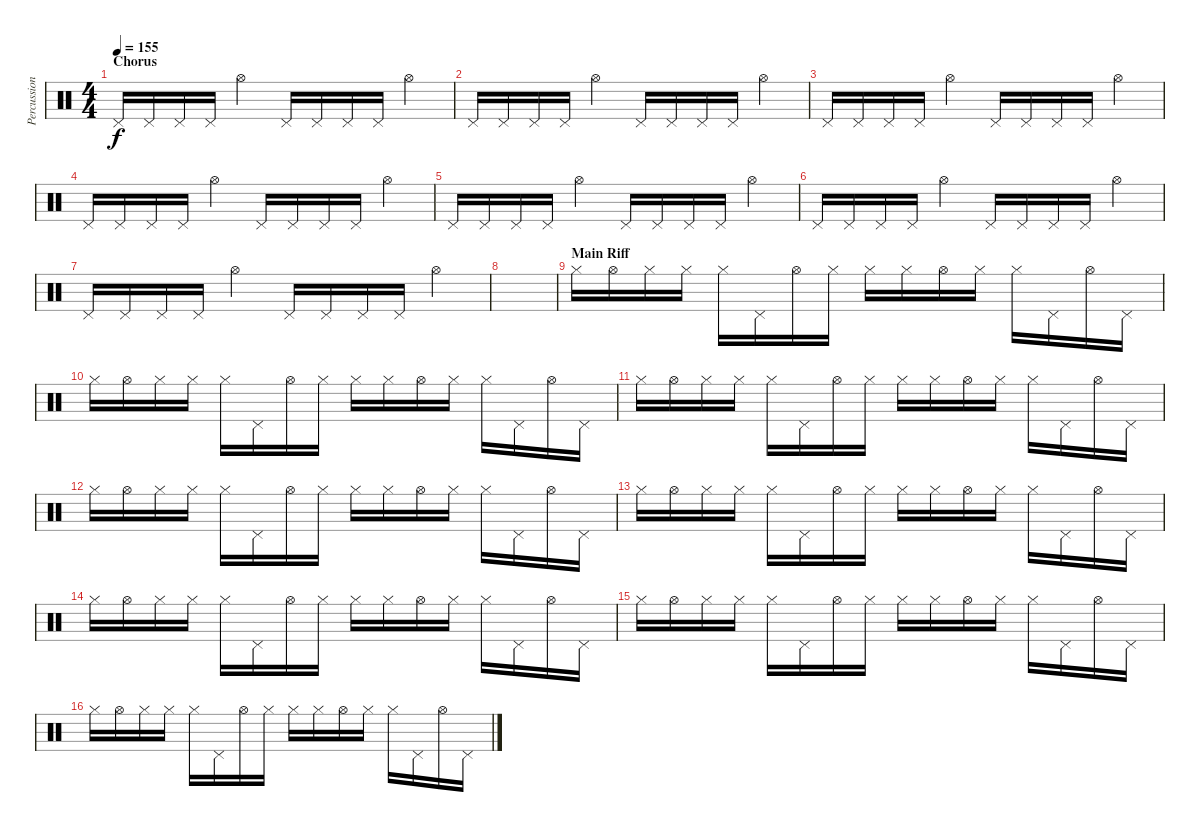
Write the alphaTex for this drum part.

\track ("Percussion" "Percussion") {instrument percussion}
\staff {score}
\articulation defaults
\ts (4 4)
\section ("" "Chorus")
\tempo 155
\clef neutral
\ks c "Pedal Hi-Hat (hit)".16{dy f} "Pedal Hi-Hat (hit)".16 "Pedal Hi-Hat (hit)".16 "Pedal Hi-Hat (hit)".16 "Hi-Hat (open)".4 "Pedal Hi-Hat (hit)".16 "Pedal Hi-Hat (hit)".16 "Pedal Hi-Hat (hit)".16 "Pedal Hi-Hat (hit)".16 "Hi-Hat (open)".4
|
"Pedal Hi-Hat (hit)".16 "Pedal Hi-Hat (hit)".16 "Pedal Hi-Hat (hit)".16 "Pedal Hi-Hat (hit)".16 "Hi-Hat (open)".4 "Pedal Hi-Hat (hit)".16 "Pedal Hi-Hat (hit)".16 "Pedal Hi-Hat (hit)".16 "Pedal Hi-Hat (hit)".16 "Hi-Hat (open)".4 |
"Pedal Hi-Hat (hit)".16 "Pedal Hi-Hat (hit)".16 "Pedal Hi-Hat (hit)".16 "Pedal Hi-Hat (hit)".16 "Hi-Hat (open)".4 "Pedal Hi-Hat (hit)".16 "Pedal Hi-Hat (hit)".16 "Pedal Hi-Hat (hit)".16 "Pedal Hi-Hat (hit)".16 "Hi-Hat (open)".4 |
"Pedal Hi-Hat (hit)".16 "Pedal Hi-Hat (hit)".16 "Pedal Hi-Hat (hit)".16 "Pedal Hi-Hat (hit)".16 "Hi-Hat (open)".4 "Pedal Hi-Hat (hit)".16 "Pedal Hi-Hat (hit)".16 "Pedal Hi-Hat (hit)".16 "Pedal Hi-Hat (hit)".16 "Hi-Hat (open)".4 |
"Pedal Hi-Hat (hit)".16 "Pedal Hi-Hat (hit)".16 "Pedal Hi-Hat (hit)".16 "Pedal Hi-Hat (hit)".16 "Hi-Hat (open)".4 "Pedal Hi-Hat (hit)".16 "Pedal Hi-Hat (hit)".16 "Pedal Hi-Hat (hit)".16 "Pedal Hi-Hat (hit)".16 "Hi-Hat (open)".4 |
"Pedal Hi-Hat (hit)".16 "Pedal Hi-Hat (hit)".16 "Pedal Hi-Hat (hit)".16 "Pedal Hi-Hat (hit)".16 "Hi-Hat (open)".4 "Pedal Hi-Hat (hit)".16 "Pedal Hi-Hat (hit)".16 "Pedal Hi-Hat (hit)".16 "Pedal Hi-Hat (hit)".16 "Hi-Hat (open)".4 |
"Pedal Hi-Hat (hit)".16 "Pedal Hi-Hat (hit)".16 "Pedal Hi-Hat (hit)".16 "Pedal Hi-Hat (hit)".16 "Hi-Hat (open)".4 "Pedal Hi-Hat (hit)".16 "Pedal Hi-Hat (hit)".16 "Pedal Hi-Hat (hit)".16 "Pedal Hi-Hat (hit)".16 "Hi-Hat (open)".4 |
|
\section ("" "Main Riff")
"Hi-Hat (closed)".16 "Hi-Hat (open)".16 "Hi-Hat (closed)".16 "Hi-Hat (closed)".16 "Hi-Hat (closed)".16 "Pedal Hi-Hat (hit)".16 "Hi-Hat (open)".16 "Hi-Hat (closed)".16 "Hi-Hat (closed)".16 "Hi-Hat (closed)".16 "Hi-Hat (open)".16 "Hi-Hat (closed)".16 "Hi-Hat (closed)".16 "Pedal Hi-Hat (hit)".16 "Hi-Hat (open)".16 "Pedal Hi-Hat (hit)".16 |
"Hi-Hat (closed)".16 "Hi-Hat (open)".16 "Hi-Hat (closed)".16 "Hi-Hat (closed)".16 "Hi-Hat (closed)".16 "Pedal Hi-Hat (hit)".16 "Hi-Hat (open)".16 "Hi-Hat (closed)".16 "Hi-Hat (closed)".16 "Hi-Hat (closed)".16 "Hi-Hat (open)".16 "Hi-Hat (closed)".16 "Hi-Hat (closed)".16 "Pedal Hi-Hat (hit)".16 "Hi-Hat (open)".16 "Pedal Hi-Hat (hit)".16 |
"Hi-Hat (closed)".16 "Hi-Hat (open)".16 "Hi-Hat (closed)".16 "Hi-Hat (closed)".16 "Hi-Hat (closed)".16 "Pedal Hi-Hat (hit)".16 "Hi-Hat (open)".16 "Hi-Hat (closed)".16 "Hi-Hat (closed)".16 "Hi-Hat (closed)".16 "Hi-Hat (open)".16 "Hi-Hat (closed)".16 "Hi-Hat (closed)".16 "Pedal Hi-Hat (hit)".16 "Hi-Hat (open)".16 "Pedal Hi-Hat (hit)".16 |
"Hi-Hat (closed)".16 "Hi-Hat (open)".16 "Hi-Hat (closed)".16 "Hi-Hat (closed)".16 "Hi-Hat (closed)".16 "Pedal Hi-Hat (hit)".16 "Hi-Hat (open)".16 "Hi-Hat (closed)".16 "Hi-Hat (closed)".16 "Hi-Hat (closed)".16 "Hi-Hat (open)".16 "Hi-Hat (closed)".16 "Hi-Hat (closed)".16 "Pedal Hi-Hat (hit)".16 "Hi-Hat (open)".16 "Pedal Hi-Hat (hit)".16 |
"Hi-Hat (closed)".16 "Hi-Hat (open)".16 "Hi-Hat (closed)".16 "Hi-Hat (closed)".16 "Hi-Hat (closed)".16 "Pedal Hi-Hat (hit)".16 "Hi-Hat (open)".16 "Hi-Hat (closed)".16 "Hi-Hat (closed)".16 "Hi-Hat (closed)".16 "Hi-Hat (open)".16 "Hi-Hat (closed)".16 "Hi-Hat (closed)".16 "Pedal Hi-Hat (hit)".16 "Hi-Hat (open)".16 "Pedal Hi-Hat (hit)".16 |
"Hi-Hat (closed)".16 "Hi-Hat (open)".16 "Hi-Hat (closed)".16 "Hi-Hat (closed)".16 "Hi-Hat (closed)".16 "Pedal Hi-Hat (hit)".16 "Hi-Hat (open)".16 "Hi-Hat (closed)".16 "Hi-Hat (closed)".16 "Hi-Hat (closed)".16 "Hi-Hat (open)".16 "Hi-Hat (closed)".16 "Hi-Hat (closed)".16 "Pedal Hi-Hat (hit)".16 "Hi-Hat (open)".16 "Pedal Hi-Hat (hit)".16 |
"Hi-Hat (closed)".16 "Hi-Hat (open)".16 "Hi-Hat (closed)".16 "Hi-Hat (closed)".16 "Hi-Hat (closed)".16 "Pedal Hi-Hat (hit)".16 "Hi-Hat (open)".16 "Hi-Hat (closed)".16 "Hi-Hat (closed)".16 "Hi-Hat (closed)".16 "Hi-Hat (open)".16 "Hi-Hat (closed)".16 "Hi-Hat (closed)".16 "Pedal Hi-Hat (hit)".16 "Hi-Hat (open)".16 "Pedal Hi-Hat (hit)".16 |
"Hi-Hat (closed)".16 "Hi-Hat (open)".16 "Hi-Hat (closed)".16 "Hi-Hat (closed)".16 "Hi-Hat (closed)".16 "Pedal Hi-Hat (hit)".16 "Hi-Hat (open)".16 "Hi-Hat (closed)".16 "Hi-Hat (closed)".16 "Hi-Hat (closed)".16 "Hi-Hat (open)".16 "Hi-Hat (closed)".16 "Hi-Hat (closed)".16 "Pedal Hi-Hat (hit)".16 "Hi-Hat (open)".16 "Pedal Hi-Hat (hit)".16
